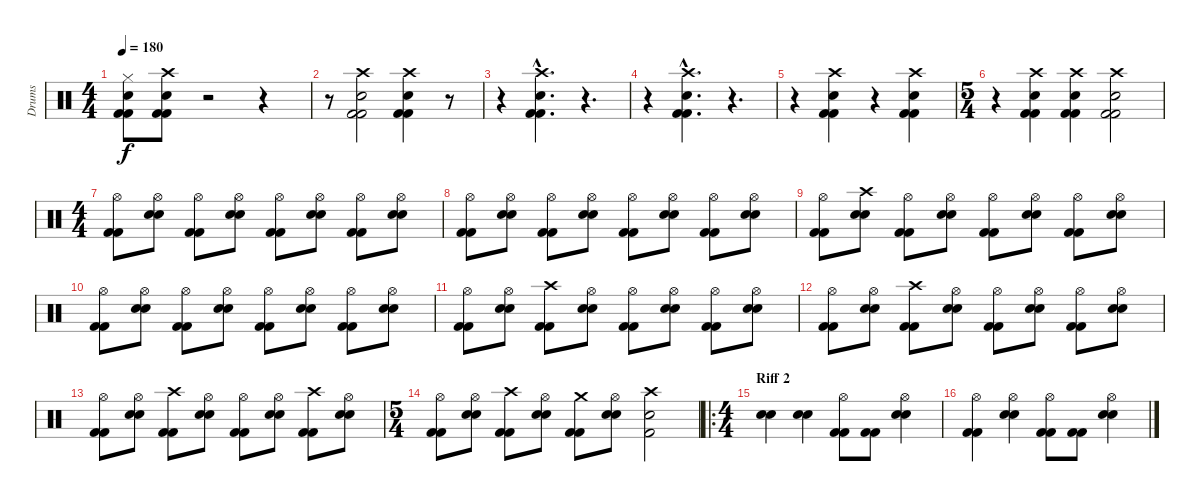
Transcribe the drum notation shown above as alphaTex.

\track ("Drums" "Drums") {instrument percussion}
\staff {score}
\articulation defaults
\ts (4 4)
\tempo 180
\clef neutral
\ks c
("Hi-Hat (closed)" "Snare (hit) 2" "Kick (hit) 2" "Kick (hit) 2").8{dy f} ("Crash high (hit)" "Snare (hit) 2" "Kick (hit) 2" "Kick (hit) 2").8 r.2 r.4 |
r.8 ("Crash high (hit)" "Snare (hit) 2" "Kick (hit) 2" "Kick (hit) 2").2 ("Crash high (hit)" "Snare (hit) 2" "Kick (hit) 2" "Kick (hit) 2").4 r.8 |
r.4 ("Crash high (hit)"{hac} "Snare (hit) 2"{hac} "Kick (hit) 2"{hac} "Kick (hit) 2"{hac}).4{d} r.4{d} |
r.4 ("Crash high (hit)"{hac} "Snare (hit) 2"{hac} "Kick (hit) 2"{hac} "Kick (hit) 2"{hac}).4{d} r.4{d} |
r.4 ("Crash high (hit)" "Snare (hit) 2" "Kick (hit) 2" "Kick (hit) 2").4 r.4 ("Crash high (hit)" "Snare (hit) 2" "Kick (hit) 2" "Kick (hit) 2").4 |
\ts (5 4)
r.4 ("Crash high (hit)" "Snare (hit) 2" "Kick (hit) 2" "Kick (hit) 2").4 ("Crash high (hit)" "Snare (hit) 2" "Kick (hit) 2" "Kick (hit) 2").4 ("Crash high (hit)" "Snare (hit) 2" "Kick (hit) 2" "Kick (hit) 2").2 |
\ts (4 4)
("Hi-Hat (open)" "Kick (hit) 2" "Kick (hit) 2").8 ("Hi-Hat (open)" "Snare (hit) 2" "Snare (hit) 2").8 ("Hi-Hat (open)" "Kick (hit) 2" "Kick (hit) 2").8 ("Hi-Hat (open)" "Snare (hit) 2" "Snare (hit) 2").8 ("Hi-Hat (open)" "Kick (hit) 2" "Kick (hit) 2").8 ("Hi-Hat (open)" "Snare (hit) 2" "Snare (hit) 2").8 ("Hi-Hat (open)" "Kick (hit) 2" "Kick (hit) 2").8 ("Hi-Hat (open)" "Snare (hit) 2" "Snare (hit) 2").8 |
("Hi-Hat (open)" "Kick (hit) 2" "Kick (hit) 2").8 ("Hi-Hat (open)" "Snare (hit) 2" "Snare (hit) 2").8 ("Hi-Hat (open)" "Kick (hit) 2" "Kick (hit) 2").8 ("Hi-Hat (open)" "Snare (hit) 2" "Snare (hit) 2").8 ("Hi-Hat (open)" "Kick (hit) 2" "Kick (hit) 2").8 ("Hi-Hat (open)" "Snare (hit) 2" "Snare (hit) 2").8 ("Hi-Hat (open)" "Kick (hit) 2" "Kick (hit) 2").8 ("Hi-Hat (open)" "Snare (hit) 2" "Snare (hit) 2").8 |
("Hi-Hat (open)" "Kick (hit) 2" "Kick (hit) 2").8 ("Crash high (hit)" "Snare (hit) 2" "Snare (hit) 2").8 ("Hi-Hat (open)" "Kick (hit) 2" "Kick (hit) 2").8 ("Hi-Hat (open)" "Snare (hit) 2" "Snare (hit) 2").8 ("Hi-Hat (open)" "Kick (hit) 2" "Kick (hit) 2").8 ("Hi-Hat (open)" "Snare (hit) 2" "Snare (hit) 2").8 ("Hi-Hat (open)" "Kick (hit) 2" "Kick (hit) 2").8 ("Hi-Hat (open)" "Snare (hit) 2" "Snare (hit) 2").8 |
("Hi-Hat (open)" "Kick (hit) 2" "Kick (hit) 2").8 ("Hi-Hat (open)" "Snare (hit) 2" "Snare (hit) 2").8 ("Hi-Hat (open)" "Kick (hit) 2" "Kick (hit) 2").8 ("Hi-Hat (open)" "Snare (hit) 2" "Snare (hit) 2").8 ("Hi-Hat (open)" "Kick (hit) 2" "Kick (hit) 2").8 ("Hi-Hat (open)" "Snare (hit) 2" "Snare (hit) 2").8 ("Hi-Hat (open)" "Kick (hit) 2" "Kick (hit) 2").8 ("Hi-Hat (open)" "Snare (hit) 2" "Snare (hit) 2").8 |
("Hi-Hat (open)" "Kick (hit) 2" "Kick (hit) 2").8 ("Hi-Hat (open)" "Snare (hit) 2" "Snare (hit) 2").8 ("Crash high (hit)" "Kick (hit) 2" "Kick (hit) 2").8 ("Hi-Hat (open)" "Snare (hit) 2" "Snare (hit) 2").8 ("Hi-Hat (open)" "Kick (hit) 2" "Kick (hit) 2").8 ("Hi-Hat (open)" "Snare (hit) 2" "Snare (hit) 2").8 ("Hi-Hat (open)" "Kick (hit) 2" "Kick (hit) 2").8 ("Hi-Hat (open)" "Snare (hit) 2" "Snare (hit) 2").8 |
("Hi-Hat (open)" "Kick (hit) 2" "Kick (hit) 2").8 ("Hi-Hat (open)" "Snare (hit) 2" "Snare (hit) 2").8 ("Crash high (hit)" "Kick (hit) 2" "Kick (hit) 2").8 ("Hi-Hat (open)" "Snare (hit) 2" "Snare (hit) 2").8 ("Hi-Hat (open)" "Kick (hit) 2" "Kick (hit) 2").8 ("Hi-Hat (open)" "Snare (hit) 2" "Snare (hit) 2").8 ("Hi-Hat (open)" "Kick (hit) 2" "Kick (hit) 2").8 ("Hi-Hat (open)" "Snare (hit) 2" "Snare (hit) 2").8 |
("Hi-Hat (open)" "Kick (hit) 2" "Kick (hit) 2").8 ("Hi-Hat (open)" "Snare (hit) 2" "Snare (hit) 2").8 ("Crash high (hit)" "Kick (hit) 2" "Kick (hit) 2").8 ("Hi-Hat (open)" "Snare (hit) 2" "Snare (hit) 2").8 ("Hi-Hat (open)" "Kick (hit) 2" "Kick (hit) 2").8 ("Hi-Hat (open)" "Snare (hit) 2" "Snare (hit) 2").8 ("Crash high (hit)" "Kick (hit) 2" "Kick (hit) 2").8 ("Hi-Hat (open)" "Snare (hit) 2" "Snare (hit) 2").8 |
\ts (5 4)
("Hi-Hat (open)" "Kick (hit) 2" "Kick (hit) 2").8 ("Hi-Hat (open)" "Snare (hit) 2" "Snare (hit) 2").8 ("Crash high (hit)" "Kick (hit) 2" "Kick (hit) 2").8 ("Hi-Hat (open)" "Snare (hit) 2" "Snare (hit) 2").8 ("Crash medium (hit)" "Kick (hit) 2" "Kick (hit) 2").8 ("Hi-Hat (open)" "Snare (hit) 2" "Snare (hit) 2").8 ("Crash high (hit)" "Snare (hit) 2" "Kick (hit) 2").2 |
\ro
\ts (4 4)
\section ("" "Riff 2")
("Snare (hit) 2" "Snare (hit) 2").4 ("Snare (hit) 2" "Snare (hit) 2").4 ("Hi-Hat (open)" "Kick (hit) 2" "Kick (hit) 2").8 ("Kick (hit) 2" "Kick (hit) 2").8 ("Hi-Hat (open)" "Snare (hit) 2" "Snare (hit) 2").4 |
("Hi-Hat (open)" "Kick (hit) 2" "Kick (hit) 2").4 ("Hi-Hat (open)" "Snare (hit) 2" "Snare (hit) 2").4 ("Hi-Hat (open)" "Kick (hit) 2" "Kick (hit) 2").8 ("Kick (hit) 2" "Kick (hit) 2").8 ("Hi-Hat (open)" "Snare (hit) 2" "Snare (hit) 2").4
